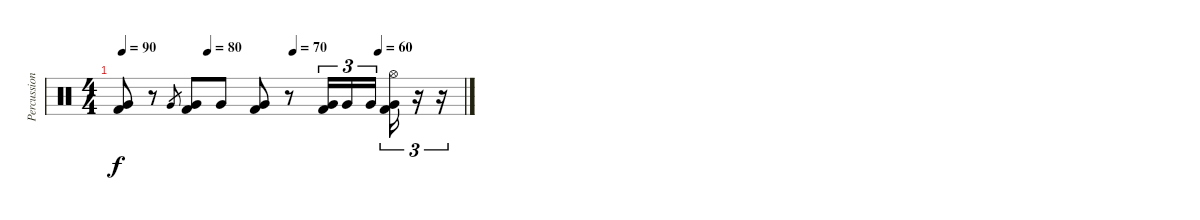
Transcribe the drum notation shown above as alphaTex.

\track ("Percussion" "Percussion") {instrument percussion}
\staff {score}
\articulation defaults
\ts (4 4)
\tempo 90
\tempo (80 0.25)
\tempo (70 0.5)
\tempo (60 0.75)
\clef neutral
\ks c
("Very Low Tom (hit)" "Kick (hit) 2").8{dy f} r.8 "Very Low Tom (hit)".8{gr} ("Very Low Tom (hit)" "Kick (hit) 2").8 "Very Low Tom (hit)".8 ("Very Low Tom (hit)" "Kick (hit) 2").8 r.8 ("Very Low Tom (hit)" "Kick (hit) 2").16{tu (3 2)} "Very Low Tom (hit)".16{tu (3 2)} "Very Low Tom (hit)".16{tu (3 2) beam splitsecondary} ("Hi-Hat (open)" "Very Low Tom (hit)" "Kick (hit) 2").16{tu (3 2)} r.16{tu (3 2)} r.16{tu (3 2)}
